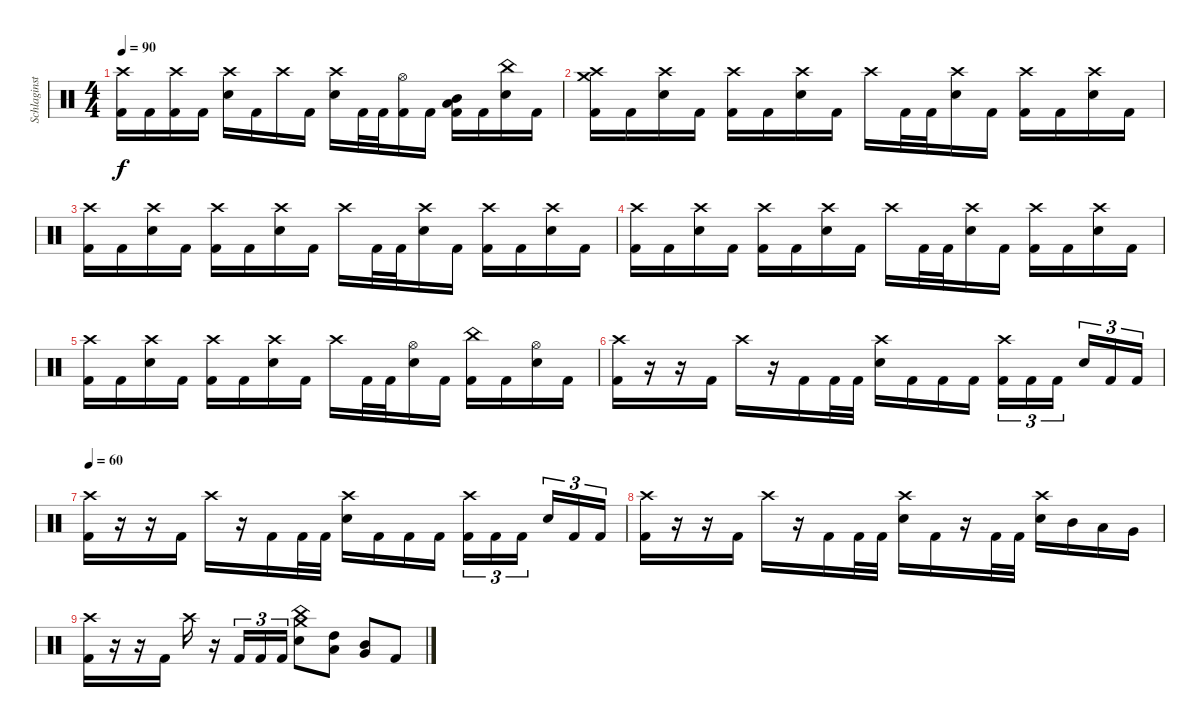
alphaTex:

\track ("Schlaginstrumente - Auswahl" "Schlaginst") {instrument percussion}
\staff {score}
\articulation defaults
\ts (4 4)
\tempo 90
\clef neutral
\ks c
("Crash high (hit)" "Kick (hit) 2").16{dy f} "Kick (hit) 2".16 ("Crash high (hit)" "Kick (hit) 2").16 "Kick (hit) 2".16 ("Crash high (hit)" "Electric Snare (hit)").16 "Kick (hit) 2".16 "Crash high (hit)".16 "Kick (hit) 2".16 ("Crash high (hit)" "Electric Snare (hit)").16 "Kick (hit) 2".32 "Kick (hit) 2".32 ("Hi-Hat (open)" "Kick (hit) 2").16 "Kick (hit) 2".16 ("Mid Tom (hit)" "Low Tom (hit)" "Kick (hit) 2").16 "Kick (hit) 2".16 ("China (hit)" "Electric Snare (hit)").16 "Kick (hit) 2".16 |
("Crash high (hit)" "Crash medium (hit)" "Kick (hit) 2").16 "Kick (hit) 2".16 ("Crash high (hit)" "Electric Snare (hit)").16 "Kick (hit) 2".16 ("Crash high (hit)" "Kick (hit) 2").16 "Kick (hit) 2".16 ("Crash high (hit)" "Electric Snare (hit)").16 "Kick (hit) 2".16 "Crash high (hit)".16 "Kick (hit) 2".32 "Kick (hit) 2".32 ("Crash high (hit)" "Electric Snare (hit)").16 "Kick (hit) 2".16 ("Crash high (hit)" "Kick (hit) 2").16 "Kick (hit) 2".16 ("Crash high (hit)" "Electric Snare (hit)").16 "Kick (hit) 2".16 |
("Crash high (hit)" "Kick (hit) 2").16 "Kick (hit) 2".16 ("Crash high (hit)" "Electric Snare (hit)").16 "Kick (hit) 2".16 ("Crash high (hit)" "Kick (hit) 2").16 "Kick (hit) 2".16 ("Crash high (hit)" "Electric Snare (hit)").16 "Kick (hit) 2".16 "Crash high (hit)".16 "Kick (hit) 2".32 "Kick (hit) 2".32 ("Crash high (hit)" "Electric Snare (hit)").16 "Kick (hit) 2".16 ("Crash high (hit)" "Kick (hit) 2").16 "Kick (hit) 2".16 ("Crash high (hit)" "Electric Snare (hit)").16 "Kick (hit) 2".16 |
("Crash high (hit)" "Kick (hit) 2").16 "Kick (hit) 2".16 ("Crash high (hit)" "Electric Snare (hit)").16 "Kick (hit) 2".16 ("Crash high (hit)" "Kick (hit) 2").16 "Kick (hit) 2".16 ("Crash high (hit)" "Electric Snare (hit)").16 "Kick (hit) 2".16 "Crash high (hit)".16 "Kick (hit) 2".32 "Kick (hit) 2".32 ("Crash high (hit)" "Electric Snare (hit)").16 "Kick (hit) 2".16 ("Crash high (hit)" "Kick (hit) 2").16 "Kick (hit) 2".16 ("Crash high (hit)" "Electric Snare (hit)").16 "Kick (hit) 2".16 |
("Crash high (hit)" "Kick (hit) 2").16 "Kick (hit) 2".16 ("Crash high (hit)" "Electric Snare (hit)").16 "Kick (hit) 2".16 ("Crash high (hit)" "Kick (hit) 2").16 "Kick (hit) 2".16 ("Crash high (hit)" "Electric Snare (hit)").16 "Kick (hit) 2".16 "Crash high (hit)".16 "Kick (hit) 2".32 "Kick (hit) 2".32 ("Hi-Hat (open)" "Electric Snare (hit)").16 "Kick (hit) 2".16 ("China (hit)" "Kick (hit) 2").16 "Kick (hit) 2".16 ("Hi-Hat (open)" "Electric Snare (hit)").16 "Kick (hit) 2".16 |
("Crash high (hit)" "Kick (hit) 2").16 r.16 r.16 "Kick (hit) 2".16 "Crash high (hit)".16 r.16 "Kick (hit) 2".16 "Kick (hit) 2".32 "Kick (hit) 2".32 ("Crash high (hit)" "Electric Snare (hit)").16 "Kick (hit) 2".16 "Kick (hit) 2".16 "Kick (hit) 2".16 ("Crash high (hit)" "Kick (hit) 2").16{tu (3 2)} "Kick (hit) 2".16{tu (3 2)} "Kick (hit) 2".16{tu (3 2) beam splitsecondary} "Electric Snare (hit)".16{tu (3 2)} "Kick (hit) 2".16{tu (3 2)} "Kick (hit) 2".16{tu (3 2)} |
\tempo 60
("Crash high (hit)" "Kick (hit) 2").16 r.16 r.16 "Kick (hit) 2".16 "Crash high (hit)".16 r.16 "Kick (hit) 2".16 "Kick (hit) 2".32 "Kick (hit) 2".32 ("Crash high (hit)" "Electric Snare (hit)").16 "Kick (hit) 2".16 "Kick (hit) 2".16 "Kick (hit) 2".16 ("Crash high (hit)" "Kick (hit) 2").16{tu (3 2)} "Kick (hit) 2".16{tu (3 2)} "Kick (hit) 2".16{tu (3 2) beam splitsecondary} "Electric Snare (hit)".16{tu (3 2)} "Kick (hit) 2".16{tu (3 2)} "Kick (hit) 2".16{tu (3 2)} |
("Crash high (hit)" "Kick (hit) 2").16 r.16 r.16 "Kick (hit) 2".16 "Crash high (hit)".16 r.16 "Kick (hit) 2".16 "Kick (hit) 2".32 "Kick (hit) 2".32 ("Crash high (hit)" "Electric Snare (hit)").16 "Kick (hit) 2".16 r.16 "Kick (hit) 2".32 "Kick (hit) 2".32 ("Crash high (hit)" "Electric Snare (hit)").16 "Mid Tom (hit)".16 "Low Tom (hit)".16 "Very Low Tom (hit)".16 |
("Crash high (hit)" "Kick (hit) 2").16 r.16 r.16 "Kick (hit) 2".16 "Crash high (hit)".16 r.16 "Kick (hit) 2".16{tu (3 2)} "Kick (hit) 2".16{tu (3 2)} "Kick (hit) 2".16{tu (3 2)} ("Crash medium (hit)" "China (hit)" "Electric Snare (hit)").8 ("High Tom (hit)" "Low Tom (hit)").8 ("Mid Tom (hit)" "Very Low Tom (hit)").8 "Kick (hit) 2".8
